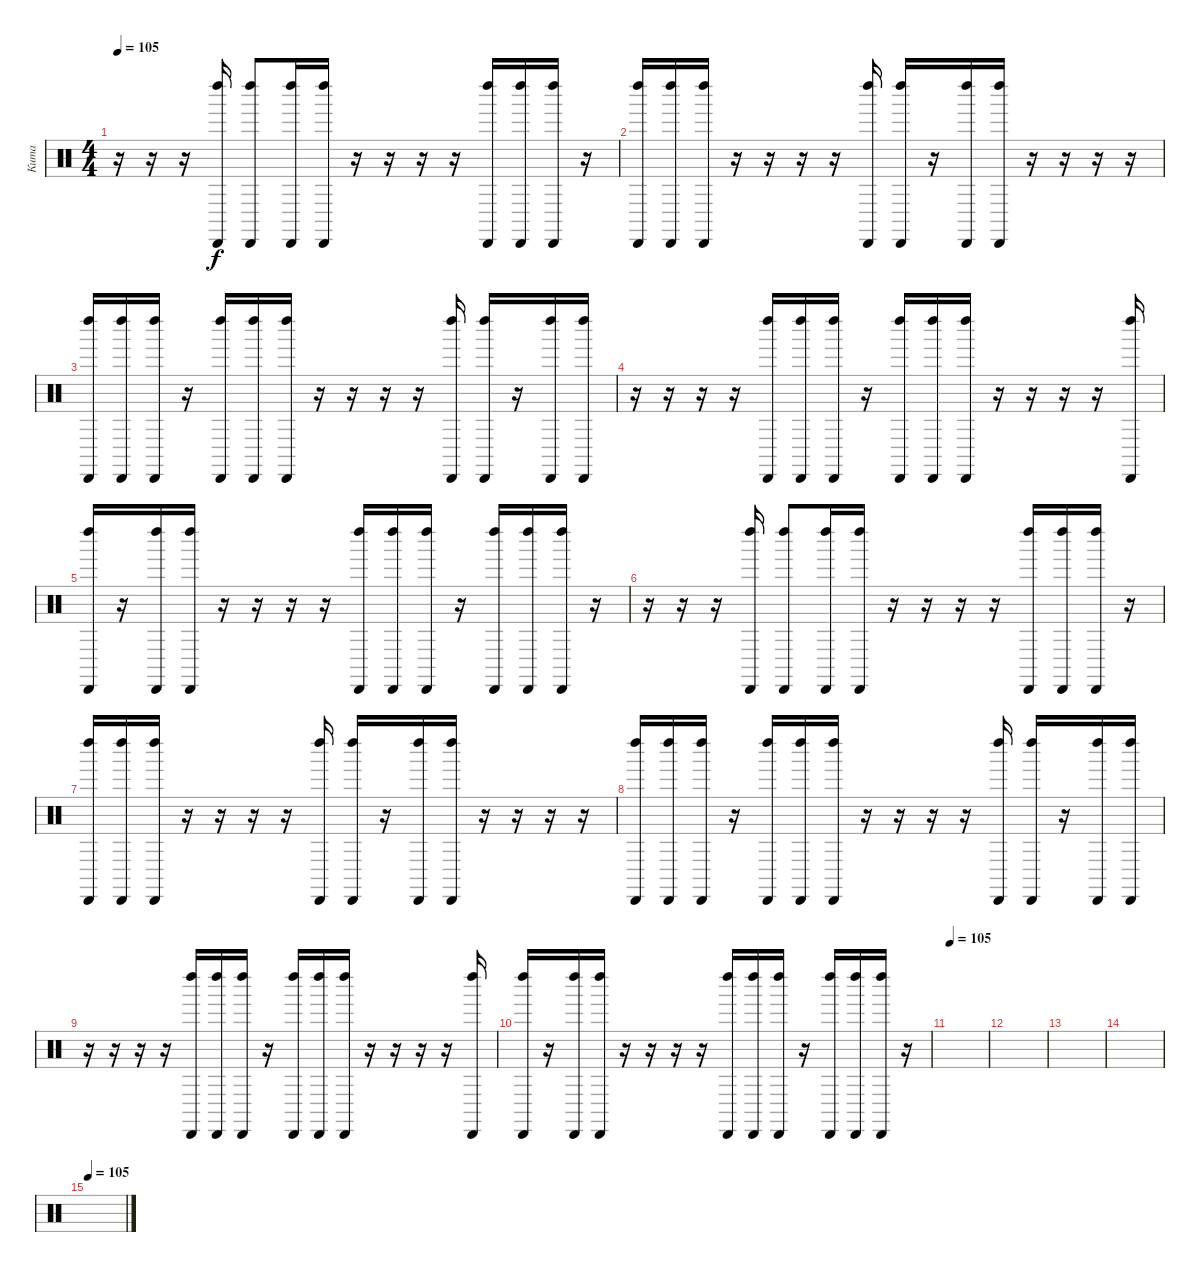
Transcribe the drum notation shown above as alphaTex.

\track ("Кита" "Кита") {instrument percussion}
\staff {score}
\articulation defaults
\ts (4 4)
\tempo 105
\tempo 132
\tempo 105
\clef neutral
\ks c
r.16{dy f} r.16 r.16 ("Cabasa (hit)" "Left Maraca (hit)").16 ("Cabasa (hit)" "Left Maraca (hit)").8 ("Cabasa (hit)" "Left Maraca (hit)").16 ("Cabasa (hit)" "Left Maraca (hit)").16 r.16 r.16 r.16 r.16 ("Cabasa (hit)" "Left Maraca (hit)").16 ("Cabasa (hit)" "Left Maraca (hit)").16 ("Cabasa (hit)" "Left Maraca (hit)").16 r.16 |
("Cabasa (hit)" "Left Maraca (hit)").16 ("Cabasa (hit)" "Left Maraca (hit)").16 ("Cabasa (hit)" "Left Maraca (hit)").16 r.16 r.16 r.16 r.16 ("Cabasa (hit)" "Left Maraca (hit)").16 ("Cabasa (hit)" "Left Maraca (hit)").16 r.16 ("Cabasa (hit)" "Left Maraca (hit)").16 ("Cabasa (hit)" "Left Maraca (hit)").16 r.16 r.16 r.16 r.16 |
("Cabasa (hit)" "Left Maraca (hit)").16 ("Cabasa (hit)" "Left Maraca (hit)").16 ("Cabasa (hit)" "Left Maraca (hit)").16 r.16 ("Cabasa (hit)" "Left Maraca (hit)").16 ("Cabasa (hit)" "Left Maraca (hit)").16 ("Cabasa (hit)" "Left Maraca (hit)").16 r.16 r.16 r.16 r.16 ("Cabasa (hit)" "Left Maraca (hit)").16 ("Cabasa (hit)" "Left Maraca (hit)").16 r.16 ("Cabasa (hit)" "Left Maraca (hit)").16 ("Cabasa (hit)" "Left Maraca (hit)").16 |
r.16 r.16 r.16 r.16 ("Cabasa (hit)" "Left Maraca (hit)").16 ("Cabasa (hit)" "Left Maraca (hit)").16 ("Cabasa (hit)" "Left Maraca (hit)").16 r.16 ("Cabasa (hit)" "Left Maraca (hit)").16 ("Cabasa (hit)" "Left Maraca (hit)").16 ("Cabasa (hit)" "Left Maraca (hit)").16 r.16 r.16 r.16 r.16 ("Cabasa (hit)" "Left Maraca (hit)").16 |
("Cabasa (hit)" "Left Maraca (hit)").16 r.16 ("Cabasa (hit)" "Left Maraca (hit)").16 ("Cabasa (hit)" "Left Maraca (hit)").16 r.16 r.16 r.16 r.16 ("Cabasa (hit)" "Left Maraca (hit)").16 ("Cabasa (hit)" "Left Maraca (hit)").16 ("Cabasa (hit)" "Left Maraca (hit)").16 r.16 ("Cabasa (hit)" "Left Maraca (hit)").16 ("Cabasa (hit)" "Left Maraca (hit)").16 ("Cabasa (hit)" "Left Maraca (hit)").16 r.16 |
r.16 r.16 r.16 ("Cabasa (hit)" "Left Maraca (hit)").16 ("Cabasa (hit)" "Left Maraca (hit)").8 ("Cabasa (hit)" "Left Maraca (hit)").16 ("Cabasa (hit)" "Left Maraca (hit)").16 r.16 r.16 r.16 r.16 ("Cabasa (hit)" "Left Maraca (hit)").16 ("Cabasa (hit)" "Left Maraca (hit)").16 ("Cabasa (hit)" "Left Maraca (hit)").16 r.16 |
("Cabasa (hit)" "Left Maraca (hit)").16 ("Cabasa (hit)" "Left Maraca (hit)").16 ("Cabasa (hit)" "Left Maraca (hit)").16 r.16 r.16 r.16 r.16 ("Cabasa (hit)" "Left Maraca (hit)").16 ("Cabasa (hit)" "Left Maraca (hit)").16 r.16 ("Cabasa (hit)" "Left Maraca (hit)").16 ("Cabasa (hit)" "Left Maraca (hit)").16 r.16 r.16 r.16 r.16 |
("Cabasa (hit)" "Left Maraca (hit)").16 ("Cabasa (hit)" "Left Maraca (hit)").16 ("Cabasa (hit)" "Left Maraca (hit)").16 r.16 ("Cabasa (hit)" "Left Maraca (hit)").16 ("Cabasa (hit)" "Left Maraca (hit)").16 ("Cabasa (hit)" "Left Maraca (hit)").16 r.16 r.16 r.16 r.16 ("Cabasa (hit)" "Left Maraca (hit)").16 ("Cabasa (hit)" "Left Maraca (hit)").16 r.16 ("Cabasa (hit)" "Left Maraca (hit)").16 ("Cabasa (hit)" "Left Maraca (hit)").16 |
r.16 r.16 r.16 r.16 ("Cabasa (hit)" "Left Maraca (hit)").16 ("Cabasa (hit)" "Left Maraca (hit)").16 ("Cabasa (hit)" "Left Maraca (hit)").16 r.16 ("Cabasa (hit)" "Left Maraca (hit)").16 ("Cabasa (hit)" "Left Maraca (hit)").16 ("Cabasa (hit)" "Left Maraca (hit)").16 r.16 r.16 r.16 r.16 ("Cabasa (hit)" "Left Maraca (hit)").16 |
("Cabasa (hit)" "Left Maraca (hit)").16 r.16 ("Cabasa (hit)" "Left Maraca (hit)").16 ("Cabasa (hit)" "Left Maraca (hit)").16 r.16 r.16 r.16 r.16 ("Cabasa (hit)" "Left Maraca (hit)").16 ("Cabasa (hit)" "Left Maraca (hit)").16 ("Cabasa (hit)" "Left Maraca (hit)").16 r.16 ("Cabasa (hit)" "Left Maraca (hit)").16 ("Cabasa (hit)" "Left Maraca (hit)").16 ("Cabasa (hit)" "Left Maraca (hit)").16 r.16 |
\tempo 105
|
|
|
|
\tempo 105
